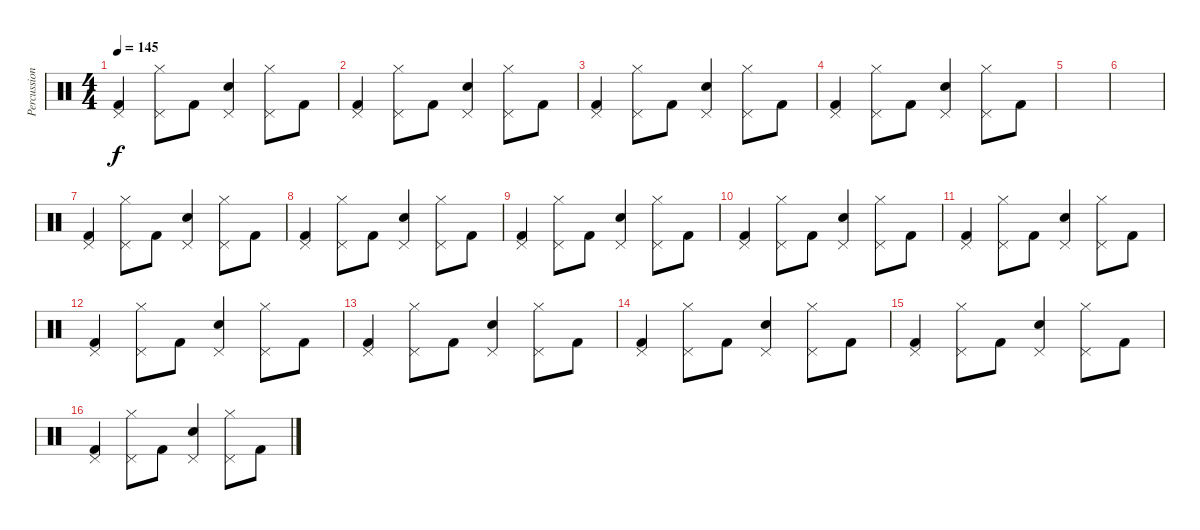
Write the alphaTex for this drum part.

\track ("Percussion" "Percussion") {instrument percussion}
\staff {score}
\articulation defaults
\ts (4 4)
\tempo 145
\clef neutral
\ks c
("Kick (hit) 2" "Pedal Hi-Hat (hit)").4{dy f} ("Hi-Hat (closed)" "Pedal Hi-Hat (hit)").8 "Kick (hit) 2".8 ("Snare (hit) 2" "Pedal Hi-Hat (hit)").4 ("Hi-Hat (closed)" "Pedal Hi-Hat (hit)").8 "Kick (hit) 2".8 |
("Kick (hit) 2" "Pedal Hi-Hat (hit)").4 ("Hi-Hat (closed)" "Pedal Hi-Hat (hit)").8 "Kick (hit) 2".8 ("Snare (hit) 2" "Pedal Hi-Hat (hit)").4 ("Hi-Hat (closed)" "Pedal Hi-Hat (hit)").8 "Kick (hit) 2".8 |
("Kick (hit) 2" "Pedal Hi-Hat (hit)").4 ("Hi-Hat (closed)" "Pedal Hi-Hat (hit)").8 "Kick (hit) 2".8 ("Snare (hit) 2" "Pedal Hi-Hat (hit)").4 ("Hi-Hat (closed)" "Pedal Hi-Hat (hit)").8 "Kick (hit) 2".8 |
("Kick (hit) 2" "Pedal Hi-Hat (hit)").4 ("Hi-Hat (closed)" "Pedal Hi-Hat (hit)").8 "Kick (hit) 2".8 ("Snare (hit) 2" "Pedal Hi-Hat (hit)").4 ("Hi-Hat (closed)" "Pedal Hi-Hat (hit)").8 "Kick (hit) 2".8 |
|
|
("Kick (hit) 2" "Pedal Hi-Hat (hit)").4 ("Hi-Hat (closed)" "Pedal Hi-Hat (hit)").8 "Kick (hit) 2".8 ("Snare (hit) 2" "Pedal Hi-Hat (hit)").4 ("Hi-Hat (closed)" "Pedal Hi-Hat (hit)").8 "Kick (hit) 2".8 |
("Kick (hit) 2" "Pedal Hi-Hat (hit)").4 ("Hi-Hat (closed)" "Pedal Hi-Hat (hit)").8 "Kick (hit) 2".8 ("Snare (hit) 2" "Pedal Hi-Hat (hit)").4 ("Hi-Hat (closed)" "Pedal Hi-Hat (hit)").8 "Kick (hit) 2".8 |
("Kick (hit) 2" "Pedal Hi-Hat (hit)").4 ("Hi-Hat (closed)" "Pedal Hi-Hat (hit)").8 "Kick (hit) 2".8 ("Snare (hit) 2" "Pedal Hi-Hat (hit)").4 ("Hi-Hat (closed)" "Pedal Hi-Hat (hit)").8 "Kick (hit) 2".8 |
("Kick (hit) 2" "Pedal Hi-Hat (hit)").4 ("Hi-Hat (closed)" "Pedal Hi-Hat (hit)").8 "Kick (hit) 2".8 ("Snare (hit) 2" "Pedal Hi-Hat (hit)").4 ("Hi-Hat (closed)" "Pedal Hi-Hat (hit)").8 "Kick (hit) 2".8 |
("Kick (hit) 2" "Pedal Hi-Hat (hit)").4 ("Hi-Hat (closed)" "Pedal Hi-Hat (hit)").8 "Kick (hit) 2".8 ("Snare (hit) 2" "Pedal Hi-Hat (hit)").4 ("Hi-Hat (closed)" "Pedal Hi-Hat (hit)").8 "Kick (hit) 2".8 |
("Kick (hit) 2" "Pedal Hi-Hat (hit)").4 ("Hi-Hat (closed)" "Pedal Hi-Hat (hit)").8 "Kick (hit) 2".8 ("Snare (hit) 2" "Pedal Hi-Hat (hit)").4 ("Hi-Hat (closed)" "Pedal Hi-Hat (hit)").8 "Kick (hit) 2".8 |
("Kick (hit) 2" "Pedal Hi-Hat (hit)").4 ("Hi-Hat (closed)" "Pedal Hi-Hat (hit)").8 "Kick (hit) 2".8 ("Snare (hit) 2" "Pedal Hi-Hat (hit)").4 ("Hi-Hat (closed)" "Pedal Hi-Hat (hit)").8 "Kick (hit) 2".8 |
("Kick (hit) 2" "Pedal Hi-Hat (hit)").4 ("Hi-Hat (closed)" "Pedal Hi-Hat (hit)").8 "Kick (hit) 2".8 ("Snare (hit) 2" "Pedal Hi-Hat (hit)").4 ("Hi-Hat (closed)" "Pedal Hi-Hat (hit)").8 "Kick (hit) 2".8 |
("Kick (hit) 2" "Pedal Hi-Hat (hit)").4 ("Hi-Hat (closed)" "Pedal Hi-Hat (hit)").8 "Kick (hit) 2".8 ("Snare (hit) 2" "Pedal Hi-Hat (hit)").4 ("Hi-Hat (closed)" "Pedal Hi-Hat (hit)").8 "Kick (hit) 2".8 |
("Kick (hit) 2" "Pedal Hi-Hat (hit)").4 ("Hi-Hat (closed)" "Pedal Hi-Hat (hit)").8 "Kick (hit) 2".8 ("Snare (hit) 2" "Pedal Hi-Hat (hit)").4 ("Hi-Hat (closed)" "Pedal Hi-Hat (hit)").8 "Kick (hit) 2".8
